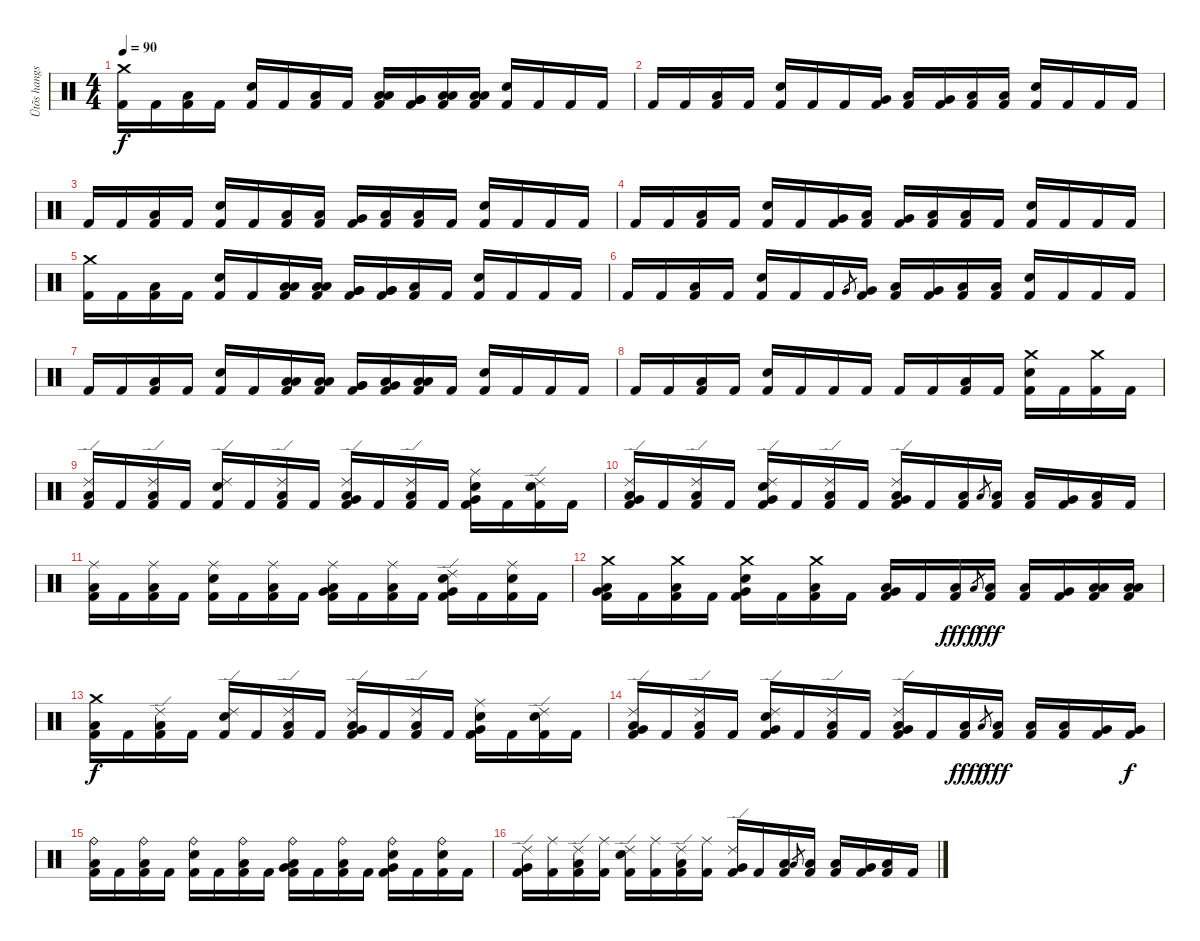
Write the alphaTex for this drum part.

\track ("Ütõs hangszer" "Ütõs hangs") {instrument percussion}
\staff {score}
\articulation defaults
\ts (4 4)
\tempo 90
\clef neutral
\ks c
("Crash medium (hit)" "Kick (hit) 2").16{dy f} "Kick (hit) 2".16 ("Low Tom (hit)" "Kick (hit) 2").16 "Kick (hit) 2".16 ("Electric Snare (hit)" "Kick (hit) 2").16 "Kick (hit) 2".16 ("Low Tom (hit)" "Kick (hit) 2").16 "Kick (hit) 2".16 ("Low Tom (hit)" "Low Tom (hit)" "Kick (hit) 2").16 ("Very Low Tom (hit)" "Very Low Tom (hit)" "Kick (hit) 2").16 ("Low Floor Tom (hit)" "Low Floor Tom (hit)" "Kick (hit) 2").16 ("Low Floor Tom (hit)" "Low Floor Tom (hit)" "Kick (hit) 2").16 ("Electric Snare (hit)" "Kick (hit) 2").16 "Kick (hit) 2".16 "Kick (hit) 2".16 "Kick (hit) 2".16 |
"Kick (hit) 2".16 "Kick (hit) 2".16 ("Low Tom (hit)" "Kick (hit) 2").16 "Kick (hit) 2".16 ("Electric Snare (hit)" "Kick (hit) 2").16 "Kick (hit) 2".16 "Kick (hit) 2".16 ("Very Low Tom (hit)" "Kick (hit) 2").16 ("Low Tom (hit)" "Kick (hit) 2").16 ("Very Low Tom (hit)" "Kick (hit) 2").16 ("Low Floor Tom (hit)" "Kick (hit) 2").16 ("Low Floor Tom (hit)" "Kick (hit) 2").16 ("Electric Snare (hit)" "Kick (hit) 2").16 "Kick (hit) 2".16 "Kick (hit) 2".16 "Kick (hit) 2".16 |
"Kick (hit) 2".16 "Kick (hit) 2".16 ("Low Tom (hit)" "Kick (hit) 2").16 "Kick (hit) 2".16 ("Electric Snare (hit)" "Kick (hit) 2").16 "Kick (hit) 2".16 ("Low Floor Tom (hit)" "Kick (hit) 2").16 ("Low Floor Tom (hit)" "Kick (hit) 2").16 ("Very Low Tom (hit)" "Kick (hit) 2").16 ("Low Floor Tom (hit)" "Kick (hit) 2").16 ("Low Tom (hit)" "Kick (hit) 2").16 "Kick (hit) 2".16 ("Electric Snare (hit)" "Kick (hit) 2").16 "Kick (hit) 2".16 "Kick (hit) 2".16 "Kick (hit) 2".16 |
"Kick (hit) 2".16 "Kick (hit) 2".16 ("Low Tom (hit)" "Kick (hit) 2").16 "Kick (hit) 2".16 ("Electric Snare (hit)" "Kick (hit) 2").16 "Kick (hit) 2".16 ("Very Low Tom (hit)" "Kick (hit) 2").16 ("Low Floor Tom (hit)" "Kick (hit) 2").16 ("Very Low Tom (hit)" "Kick (hit) 2").16 ("Low Floor Tom (hit)" "Kick (hit) 2").16 ("Low Tom (hit)" "Kick (hit) 2").16 "Kick (hit) 2".16 ("Electric Snare (hit)" "Kick (hit) 2").16 "Kick (hit) 2".16 "Kick (hit) 2".16 "Kick (hit) 2".16 |
("Crash medium (hit)" "Kick (hit) 2").16 "Kick (hit) 2".16 ("Low Tom (hit)" "Kick (hit) 2").16 "Kick (hit) 2".16 ("Electric Snare (hit)" "Kick (hit) 2").16 "Kick (hit) 2".16 ("Low Tom (hit)" "Low Tom (hit)" "Kick (hit) 2").16 ("Low Tom (hit)" "Low Tom (hit)" "Kick (hit) 2").16 ("Very Low Tom (hit)" "Very Low Tom (hit)" "Kick (hit) 2").16 ("Very Low Tom (hit)" "Very Low Tom (hit)" "Kick (hit) 2").16 ("Low Tom (hit)" "Kick (hit) 2").16 "Kick (hit) 2".16 ("Electric Snare (hit)" "Kick (hit) 2").16 "Kick (hit) 2".16 "Kick (hit) 2".16 "Kick (hit) 2".16 |
"Kick (hit) 2".16 "Kick (hit) 2".16 ("Low Tom (hit)" "Kick (hit) 2").16 "Kick (hit) 2".16 ("Electric Snare (hit)" "Kick (hit) 2").16 "Kick (hit) 2".16 "Kick (hit) 2".16 "Very Low Tom (hit)".8{gr} ("Very Low Tom (hit)" "Kick (hit) 2").16 ("Low Tom (hit)" "Kick (hit) 2").16 ("Very Low Tom (hit)" "Kick (hit) 2").16 ("Low Floor Tom (hit)" "Kick (hit) 2").16 ("Low Floor Tom (hit)" "Kick (hit) 2").16 ("Electric Snare (hit)" "Kick (hit) 2").16 "Kick (hit) 2".16 "Kick (hit) 2".16 "Kick (hit) 2".16 |
"Kick (hit) 2".16 "Kick (hit) 2".16 ("Low Tom (hit)" "Kick (hit) 2").16 "Kick (hit) 2".16 ("Electric Snare (hit)" "Kick (hit) 2").16 "Kick (hit) 2".16 ("Low Floor Tom (hit)" "Low Floor Tom (hit)" "Kick (hit) 2").16 ("Low Floor Tom (hit)" "Low Floor Tom (hit)" "Kick (hit) 2").16 ("Very Low Tom (hit)" "Very Low Tom (hit)" "Kick (hit) 2").16 ("Low Floor Tom (hit)" "Very Low Tom (hit)" "Kick (hit) 2").16 ("Low Tom (hit)" "Low Floor Tom (hit)" "Kick (hit) 2").16 "Kick (hit) 2".16 ("Electric Snare (hit)" "Kick (hit) 2").16 "Kick (hit) 2".16 "Kick (hit) 2".16 "Kick (hit) 2".16 |
"Kick (hit) 2".16 "Kick (hit) 2".16 ("Low Tom (hit)" "Kick (hit) 2").16 "Kick (hit) 2".16 ("Electric Snare (hit)" "Kick (hit) 2").16 "Kick (hit) 2".16 "Kick (hit) 2".16 "Kick (hit) 2".16 "Kick (hit) 2".16 "Kick (hit) 2".16 ("Low Tom (hit)" "Kick (hit) 2").16 "Kick (hit) 2".16 ("Crash medium (hit)" "Electric Snare (hit)" "Kick (hit) 2").16 "Kick (hit) 2".16 ("Crash medium (hit)" "Kick (hit) 2").16 "Kick (hit) 2".16 |
("Ride (edge) 2" "Low Tom (hit)" "Kick (hit) 2").16 "Kick (hit) 2".16 ("Ride (edge) 2" "Low Tom (hit)" "Kick (hit) 2").16 "Kick (hit) 2".16 ("Ride (edge) 2" "Electric Snare (hit)" "Kick (hit) 2").16 "Kick (hit) 2".16 ("Ride (edge) 2" "Low Floor Tom (hit)" "Kick (hit) 2").16 "Kick (hit) 2".16 ("Ride (edge) 2" "Low Tom (hit)" "Very Low Tom (hit)" "Kick (hit) 2").16 "Kick (hit) 2".16 ("Ride (edge) 2" "Low Tom (hit)" "Kick (hit) 2").16 "Kick (hit) 2".16 ("Ride (middle)" "Very Low Tom (hit)" "Electric Snare (hit)" "Kick (hit) 2").16 "Kick (hit) 2".16 ("Ride (edge) 2" "Electric Snare (hit)" "Kick (hit) 2").16 "Kick (hit) 2".16 |
("Ride (edge) 2" "Low Tom (hit)" "Very Low Tom (hit)" "Kick (hit) 2").16 "Kick (hit) 2".16 ("Ride (edge) 2" "Low Tom (hit)" "Kick (hit) 2").16 "Kick (hit) 2".16 ("Ride (edge) 2" "Very Low Tom (hit)" "Electric Snare (hit)" "Kick (hit) 2").16 "Kick (hit) 2".16 ("Ride (edge) 2" "Low Floor Tom (hit)" "Kick (hit) 2").16 "Kick (hit) 2".16 ("Ride (edge) 2" "Low Tom (hit)" "Very Low Tom (hit)" "Kick (hit) 2").16 "Kick (hit) 2".16 ("Low Tom (hit)" "Kick (hit) 2").16 "Low Tom (hit)".8{gr} ("Low Tom (hit)" "Kick (hit) 2").16 ("Low Tom (hit)" "Kick (hit) 2").16 ("Very Low Tom (hit)" "Kick (hit) 2").16 ("Low Floor Tom (hit)" "Kick (hit) 2").16 "Kick (hit) 2".16 |
("Ride (middle)" "Low Tom (hit)" "Kick (hit) 2").16 "Kick (hit) 2".16 ("Ride (middle)" "Low Tom (hit)" "Kick (hit) 2").16 "Kick (hit) 2".16 ("Ride (middle)" "Electric Snare (hit)" "Kick (hit) 2").16 "Kick (hit) 2".16 ("Ride (middle)" "Low Floor Tom (hit)" "Kick (hit) 2").16 "Kick (hit) 2".16 ("Ride (middle)" "Low Tom (hit)" "Very Low Tom (hit)" "Kick (hit) 2").16 "Kick (hit) 2".16 ("Ride (middle)" "Low Tom (hit)" "Kick (hit) 2").16 "Kick (hit) 2".16 ("Ride (edge) 2" "Very Low Tom (hit)" "Electric Snare (hit)" "Kick (hit) 2").16 "Kick (hit) 2".16 ("Ride (middle)" "Electric Snare (hit)" "Kick (hit) 2").16 "Kick (hit) 2".16 |
("Crash medium (hit)" "Low Tom (hit)" "Very Low Tom (hit)" "Kick (hit) 2").16 "Kick (hit) 2".16 ("Crash medium (hit)" "Low Tom (hit)" "Kick (hit) 2").16 "Kick (hit) 2".16 ("Crash medium (hit)" "Very Low Tom (hit)" "Electric Snare (hit)" "Kick (hit) 2").16 "Kick (hit) 2".16 ("Crash medium (hit)" "Low Floor Tom (hit)" "Kick (hit) 2").16 "Kick (hit) 2".16 ("Low Tom (hit)" "Very Low Tom (hit)" "Kick (hit) 2").16 "Kick (hit) 2".16 ("Low Tom (hit)" "Kick (hit) 2").16{dy fff} "Low Tom (hit)".8{gr dy f} ("Low Tom (hit)" "Kick (hit) 2").16{dy fff} ("Low Tom (hit)" "Kick (hit) 2").16 ("Very Low Tom (hit)" "Kick (hit) 2").16 ("Low Floor Tom (hit)" "Low Floor Tom (hit)" "Kick (hit) 2").16 ("Low Floor Tom (hit)" "Low Floor Tom (hit)" "Kick (hit) 2").16 |
("Crash medium (hit)" "Low Tom (hit)" "Kick (hit) 2").16{dy f} "Kick (hit) 2".16 ("Ride (edge) 2" "Low Tom (hit)" "Kick (hit) 2").16 "Kick (hit) 2".16 ("Ride (edge) 2" "Electric Snare (hit)" "Kick (hit) 2").16 "Kick (hit) 2".16 ("Ride (edge) 2" "Low Floor Tom (hit)" "Kick (hit) 2").16 "Kick (hit) 2".16 ("Ride (edge) 2" "Low Tom (hit)" "Very Low Tom (hit)" "Kick (hit) 2").16 "Kick (hit) 2".16 ("Ride (edge) 2" "Low Tom (hit)" "Kick (hit) 2").16 "Kick (hit) 2".16 ("Ride (middle)" "Very Low Tom (hit)" "Electric Snare (hit)" "Kick (hit) 2").16 "Kick (hit) 2".16 ("Ride (edge) 2" "Electric Snare (hit)" "Kick (hit) 2").16 "Kick (hit) 2".16 |
("Ride (edge) 2" "Low Tom (hit)" "Very Low Tom (hit)" "Kick (hit) 2").16 "Kick (hit) 2".16 ("Ride (edge) 2" "Low Tom (hit)" "Kick (hit) 2").16 "Kick (hit) 2".16 ("Ride (edge) 2" "Very Low Tom (hit)" "Electric Snare (hit)" "Kick (hit) 2").16 "Kick (hit) 2".16 ("Ride (edge) 2" "Low Floor Tom (hit)" "Kick (hit) 2").16 "Kick (hit) 2".16 ("Ride (edge) 2" "Low Tom (hit)" "Very Low Tom (hit)" "Kick (hit) 2").16 "Kick (hit) 2".16 ("Low Floor Tom (hit)" "Kick (hit) 2").16{dy fff} "Low Tom (hit)".8{gr dy f} ("Low Floor Tom (hit)" "Kick (hit) 2").16{dy fff} ("Low Tom (hit)" "Kick (hit) 2").16 ("Low Tom (hit)" "Kick (hit) 2").16 ("Very Low Tom (hit)" "Kick (hit) 2").16 ("Very Low Tom (hit)" "Kick (hit) 2").16{dy f} |
("Ride (bell)" "Low Tom (hit)" "Kick (hit) 2").16 "Kick (hit) 2".16 ("Ride (bell)" "Low Tom (hit)" "Kick (hit) 2").16 "Kick (hit) 2".16 ("Ride (bell)" "Electric Snare (hit)" "Kick (hit) 2").16 "Kick (hit) 2".16 ("Ride (bell)" "Low Floor Tom (hit)" "Kick (hit) 2").16 "Kick (hit) 2".16 ("Ride (bell)" "Low Tom (hit)" "Very Low Tom (hit)" "Kick (hit) 2").16 "Kick (hit) 2".16 ("Ride (bell)" "Low Tom (hit)" "Kick (hit) 2").16 "Kick (hit) 2".16 ("Ride (bell)" "Very Low Tom (hit)" "Electric Snare (hit)" "Kick (hit) 2").16 "Kick (hit) 2".16 ("Ride (bell)" "Electric Snare (hit)" "Kick (hit) 2").16 "Kick (hit) 2".16 |
("Ride (edge) 2" "Very Low Tom (hit)" "Kick (hit) 2").16 ("Ride (middle)" "Kick (hit) 2").16 ("Ride (edge) 2" "Low Tom (hit)" "Kick (hit) 2").16 ("Ride (middle)" "Kick (hit) 2").16 ("Ride (edge) 2" "Electric Snare (hit)" "Kick (hit) 2").16 ("Ride (middle)" "Kick (hit) 2").16 ("Ride (edge) 2" "Low Floor Tom (hit)" "Kick (hit) 2").16 ("Ride (middle)" "Kick (hit) 2").16 ("Ride (edge) 2" "Very Low Tom (hit)" "Kick (hit) 2").16 "Kick (hit) 2".16 ("Low Tom (hit)" "Kick (hit) 2").16 "Low Tom (hit)".8{gr} ("Low Tom (hit)" "Kick (hit) 2").16 ("Low Tom (hit)" "Kick (hit) 2").16 ("Very Low Tom (hit)" "Kick (hit) 2").16 ("Low Floor Tom (hit)" "Kick (hit) 2").16 "Kick (hit) 2".16
